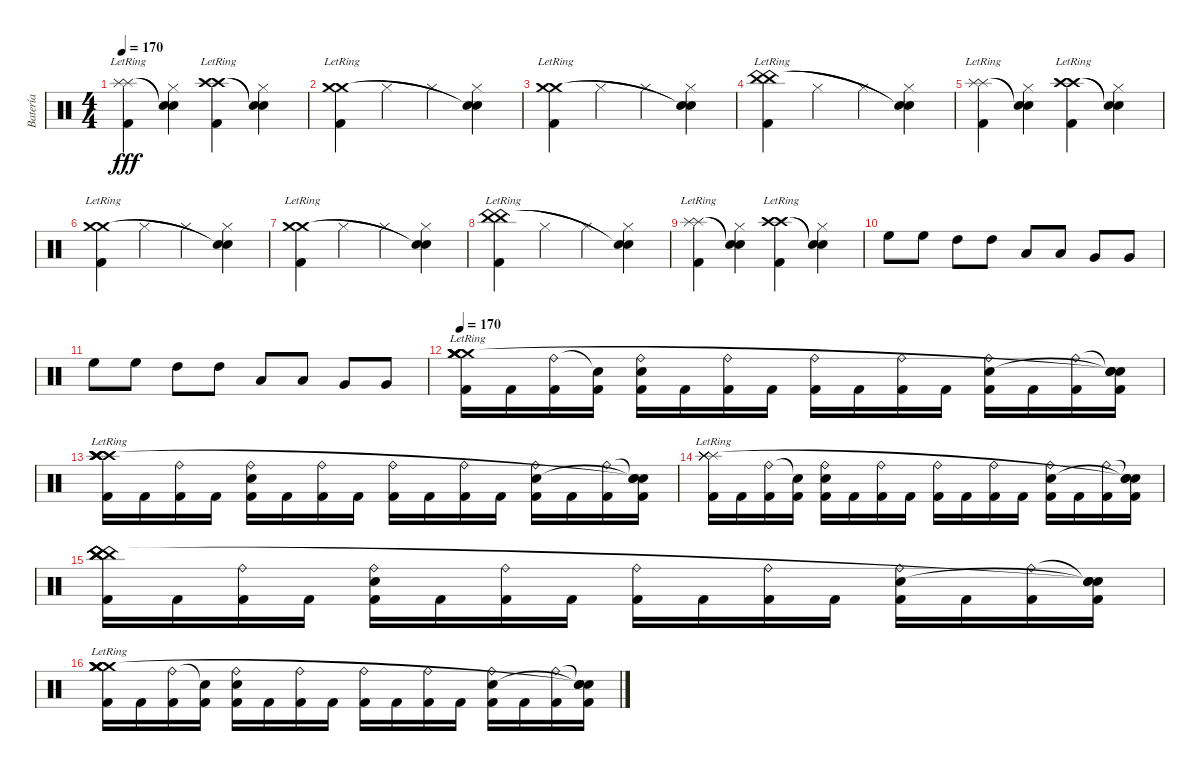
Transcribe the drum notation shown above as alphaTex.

\track ("Batería" "Batería") {instrument percussion}
\staff {score}
\articulation defaults
\ts (4 4)
\tempo 170
\clef neutral
\ks c
("Kick (hit) 2" "Splash (hit)"{lr} "Splash (hit)"{lr}).4{dy fff} ("Hi-Hat (closed)" "Snare (hit)"{t} "Snare (hit)"{t}).4 ("Kick (hit) 2" "Crash high (hit)"{lr} "Crash high (hit)"{lr}).4 ("Hi-Hat (closed)" "Snare (hit)"{t} "Snare (hit)"{t}).4 |
("Kick (hit) 2"{lr} "Crash medium (hit)"{lr} "Crash medium (hit)"{lr}).4 "Hi-Hat (closed)".4 "Hi-Hat (closed)".4 ("Hi-Hat (closed)" "Snare (hit)"{t} "Snare (hit)"{t}).4 |
("Kick (hit) 2"{lr} "Crash medium (hit)"{lr} "Crash medium (hit)"{lr}).4 "Hi-Hat (closed)".4 "Hi-Hat (closed)".4 ("Hi-Hat (closed)" "Snare (hit)"{t} "Snare (hit)"{t}).4 |
("Kick (hit) 2"{lr} "China (hit)"{lr} "China (hit)"{lr}).4 "Hi-Hat (closed)".4 "Hi-Hat (closed)".4 ("Hi-Hat (closed)" "Snare (hit)"{t} "Snare (hit)"{t}).4 |
("Kick (hit) 2" "Splash (hit)"{lr} "Splash (hit)"{lr}).4 ("Hi-Hat (closed)" "Snare (hit)"{t} "Snare (hit)"{t}).4 ("Kick (hit) 2" "Crash high (hit)"{lr} "Crash high (hit)"{lr}).4 ("Hi-Hat (closed)" "Snare (hit)"{t} "Snare (hit)"{t}).4 |
("Kick (hit) 2"{lr} "Crash medium (hit)"{lr} "Crash medium (hit)"{lr}).4 "Hi-Hat (closed)".4 "Hi-Hat (closed)".4 ("Hi-Hat (closed)" "Snare (hit)"{t} "Snare (hit)"{t}).4 |
("Kick (hit) 2"{lr} "Crash medium (hit)"{lr} "Crash medium (hit)"{lr}).4 "Hi-Hat (closed)".4 "Hi-Hat (closed)".4 ("Hi-Hat (closed)" "Snare (hit)"{t} "Snare (hit)"{t}).4 |
("Kick (hit) 2"{lr} "China (hit)"{lr} "China (hit)"{lr}).4 "Hi-Hat (closed)".4 "Hi-Hat (closed)".4 ("Hi-Hat (closed)" "Snare (hit)"{t} "Snare (hit)"{t}).4 |
("Kick (hit) 2" "Splash (hit)"{lr} "Splash (hit)"{lr}).4 ("Hi-Hat (closed)" "Snare (hit)"{t} "Snare (hit)"{t}).4 ("Kick (hit) 2" "Crash high (hit)"{lr} "Crash high (hit)"{lr}).4 ("Hi-Hat (closed)" "Snare (hit)"{t} "Snare (hit)"{t}).4 |
"High Floor Tom (hit)".8 "High Floor Tom (hit)".8 "High Tom (hit)".8 "High Tom (hit)".8 "Low Tom (hit)".8 "Low Tom (hit)".8 "Very Low Tom (hit)".8 "Very Low Tom (hit)".8 |
"High Floor Tom (hit)".8 "High Floor Tom (hit)".8 "High Tom (hit)".8 "High Tom (hit)".8 "Low Tom (hit)".8 "Low Tom (hit)".8 "Very Low Tom (hit)".8 "Very Low Tom (hit)".8 |
\tempo 170
("Kick (hit) 2" "Crash medium (hit)"{lr} "Crash medium (hit)"{lr} "Crash medium (hit)"{lr} "Crash medium (hit)"{lr} "Crash medium (hit)"{lr}).16 "Kick (hit) 2".16 ("Kick (hit) 2" "Ride (bell)").16 ("Kick (hit) 2" "Snare (hit)"{t}).16 ("Kick (hit) 2" "Ride (bell)" "Electric Snare (hit)").16 "Kick (hit) 2".16 ("Kick (hit) 2" "Ride (bell)").16 "Kick (hit) 2".16 ("Kick (hit) 2" "Ride (bell)").16 "Kick (hit) 2".16 ("Kick (hit) 2" "Ride (bell)").16 "Kick (hit) 2".16 ("Kick (hit) 2" "Ride (bell)" "Electric Snare (hit)").16 "Kick (hit) 2".16 ("Kick (hit) 2" "Ride (bell)").16 ("Kick (hit) 2" "Snare (hit)"{t} "Snare (hit)"{t} "Snare (hit)"{t}).16 |
("Kick (hit) 2" "Crash high (hit)"{lr} "Crash high (hit)"{lr} "Crash high (hit)"{lr} "Crash high (hit)"{lr} "Crash high (hit)"{lr}).16 "Kick (hit) 2".16 ("Kick (hit) 2" "Ride (bell)").16 "Kick (hit) 2".16 ("Kick (hit) 2" "Ride (bell)" "Electric Snare (hit)").16 "Kick (hit) 2".16 ("Kick (hit) 2" "Ride (bell)").16 "Kick (hit) 2".16 ("Kick (hit) 2" "Ride (bell)").16 "Kick (hit) 2".16 ("Kick (hit) 2" "Ride (bell)").16 "Kick (hit) 2".16 ("Kick (hit) 2" "Ride (bell)" "Electric Snare (hit)").16 "Kick (hit) 2".16 ("Kick (hit) 2" "Ride (bell)").16 ("Kick (hit) 2" "Snare (hit)"{t} "Snare (hit)"{t} "Snare (hit)"{t}).16 |
("Kick (hit) 2" "Splash (hit)"{lr} "Splash (hit)"{lr} "Splash (hit)"{lr} "Splash (hit)"{lr} "Splash (hit)"{lr}).16 "Kick (hit) 2".16 ("Kick (hit) 2" "Ride (bell)").16 ("Kick (hit) 2" "Snare (hit)"{t}).16 ("Kick (hit) 2" "Ride (bell)" "Electric Snare (hit)").16 "Kick (hit) 2".16 ("Kick (hit) 2" "Ride (bell)").16 "Kick (hit) 2".16 ("Kick (hit) 2" "Ride (bell)").16 "Kick (hit) 2".16 ("Kick (hit) 2" "Ride (bell)").16 "Kick (hit) 2".16 ("Kick (hit) 2" "Ride (bell)" "Electric Snare (hit)").16 "Kick (hit) 2".16 ("Kick (hit) 2" "Ride (bell)").16 ("Kick (hit) 2" "Snare (hit)"{t} "Snare (hit)"{t} "Snare (hit)"{t}).16 |
("Kick (hit) 2" "China (hit)" "China (hit)" "China (hit)" "China (hit)" "China (hit)").16 "Kick (hit) 2".16 ("Kick (hit) 2" "Ride (bell)").16 "Kick (hit) 2".16 ("Kick (hit) 2" "Ride (bell)" "Electric Snare (hit)").16 "Kick (hit) 2".16 ("Kick (hit) 2" "Ride (bell)").16 "Kick (hit) 2".16 ("Kick (hit) 2" "Ride (bell)").16 "Kick (hit) 2".16 ("Kick (hit) 2" "Ride (bell)").16 "Kick (hit) 2".16 ("Kick (hit) 2" "Ride (bell)" "Electric Snare (hit)").16 "Kick (hit) 2".16 ("Kick (hit) 2" "Ride (bell)").16 ("Kick (hit) 2" "Snare (hit)"{t} "Snare (hit)"{t} "Snare (hit)"{t}).16 |
("Kick (hit) 2" "Crash medium (hit)"{lr} "Crash medium (hit)"{lr} "Crash medium (hit)"{lr} "Crash medium (hit)"{lr} "Crash medium (hit)"{lr}).16 "Kick (hit) 2".16 ("Kick (hit) 2" "Ride (bell)").16 ("Kick (hit) 2" "Snare (hit)"{t}).16 ("Kick (hit) 2" "Ride (bell)" "Electric Snare (hit)").16 "Kick (hit) 2".16 ("Kick (hit) 2" "Ride (bell)").16 "Kick (hit) 2".16 ("Kick (hit) 2" "Ride (bell)").16 "Kick (hit) 2".16 ("Kick (hit) 2" "Ride (bell)").16 "Kick (hit) 2".16 ("Kick (hit) 2" "Ride (bell)" "Electric Snare (hit)").16 "Kick (hit) 2".16 ("Kick (hit) 2" "Ride (bell)").16 ("Kick (hit) 2" "Snare (hit)"{t} "Snare (hit)"{t} "Snare (hit)"{t}).16
